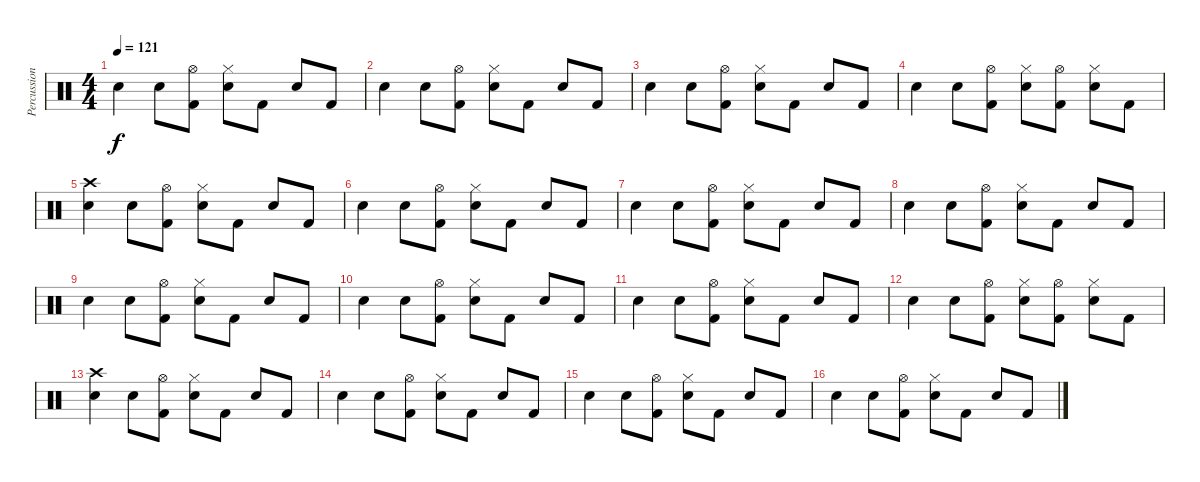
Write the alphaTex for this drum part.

\track ("Percussion" "Percussion") {instrument percussion}
\staff {score}
\articulation defaults
\ts (4 4)
\tempo 121
\clef neutral
\ks c "Snare (hit) 2".4{dy f} "Snare (hit) 2".8
("Hi-Hat (open)" "Kick (hit) 2").8 ("Hi-Hat (closed)" "Snare (hit) 2").8 "Kick (hit) 2".8 "Snare (hit) 2".8 "Kick (hit) 2".8 |
"Snare (hit) 2".4 "Snare (hit) 2".8 ("Hi-Hat (open)" "Kick (hit) 2").8 ("Hi-Hat (closed)" "Snare (hit) 2").8 "Kick (hit) 2".8 "Snare (hit) 2".8 "Kick (hit) 2".8 |
"Snare (hit) 2".4 "Snare (hit) 2".8 ("Hi-Hat (open)" "Kick (hit) 2").8 ("Hi-Hat (closed)" "Snare (hit) 2").8 "Kick (hit) 2".8 "Snare (hit) 2".8 "Kick (hit) 2".8 |
"Snare (hit) 2".4 "Snare (hit) 2".8 ("Hi-Hat (open)" "Kick (hit) 2").8 ("Hi-Hat (closed)" "Snare (hit) 2").8 ("Hi-Hat (open)" "Kick (hit) 2").8 ("Hi-Hat (closed)" "Snare (hit) 2").8 "Kick (hit) 2".8 |
("Crash high (hit)" "Snare (hit) 2").4 "Snare (hit) 2".8 ("Hi-Hat (open)" "Kick (hit) 2").8 ("Hi-Hat (closed)" "Snare (hit) 2").8 "Kick (hit) 2".8 "Snare (hit) 2".8 "Kick (hit) 2".8 |
"Snare (hit) 2".4 "Snare (hit) 2".8 ("Hi-Hat (open)" "Kick (hit) 2").8 ("Hi-Hat (closed)" "Snare (hit) 2").8 "Kick (hit) 2".8 "Snare (hit) 2".8 "Kick (hit) 2".8 |
"Snare (hit) 2".4 "Snare (hit) 2".8 ("Hi-Hat (open)" "Kick (hit) 2").8 ("Hi-Hat (closed)" "Snare (hit) 2").8 "Kick (hit) 2".8 "Snare (hit) 2".8 "Kick (hit) 2".8 |
"Snare (hit) 2".4 "Snare (hit) 2".8 ("Hi-Hat (open)" "Kick (hit) 2").8 ("Hi-Hat (closed)" "Snare (hit) 2").8 "Kick (hit) 2".8 "Snare (hit) 2".8 "Kick (hit) 2".8 |
"Snare (hit) 2".4 "Snare (hit) 2".8 ("Hi-Hat (open)" "Kick (hit) 2").8 ("Hi-Hat (closed)" "Snare (hit) 2").8 "Kick (hit) 2".8 "Snare (hit) 2".8 "Kick (hit) 2".8 |
"Snare (hit) 2".4 "Snare (hit) 2".8 ("Hi-Hat (open)" "Kick (hit) 2").8 ("Hi-Hat (closed)" "Snare (hit) 2").8 "Kick (hit) 2".8 "Snare (hit) 2".8 "Kick (hit) 2".8 |
"Snare (hit) 2".4 "Snare (hit) 2".8 ("Hi-Hat (open)" "Kick (hit) 2").8 ("Hi-Hat (closed)" "Snare (hit) 2").8 "Kick (hit) 2".8 "Snare (hit) 2".8 "Kick (hit) 2".8 |
"Snare (hit) 2".4 "Snare (hit) 2".8 ("Hi-Hat (open)" "Kick (hit) 2").8 ("Hi-Hat (closed)" "Snare (hit) 2").8 ("Hi-Hat (open)" "Kick (hit) 2").8 ("Hi-Hat (closed)" "Snare (hit) 2").8 "Kick (hit) 2".8 |
("Crash high (hit)" "Snare (hit) 2").4 "Snare (hit) 2".8 ("Hi-Hat (open)" "Kick (hit) 2").8 ("Hi-Hat (closed)" "Snare (hit) 2").8 "Kick (hit) 2".8 "Snare (hit) 2".8 "Kick (hit) 2".8 |
"Snare (hit) 2".4 "Snare (hit) 2".8 ("Hi-Hat (open)" "Kick (hit) 2").8 ("Hi-Hat (closed)" "Snare (hit) 2").8 "Kick (hit) 2".8 "Snare (hit) 2".8 "Kick (hit) 2".8 |
"Snare (hit) 2".4 "Snare (hit) 2".8 ("Hi-Hat (open)" "Kick (hit) 2").8 ("Hi-Hat (closed)" "Snare (hit) 2").8 "Kick (hit) 2".8 "Snare (hit) 2".8 "Kick (hit) 2".8 |
"Snare (hit) 2".4 "Snare (hit) 2".8 ("Hi-Hat (open)" "Kick (hit) 2").8 ("Hi-Hat (closed)" "Snare (hit) 2").8 "Kick (hit) 2".8 "Snare (hit) 2".8 "Kick (hit) 2".8
